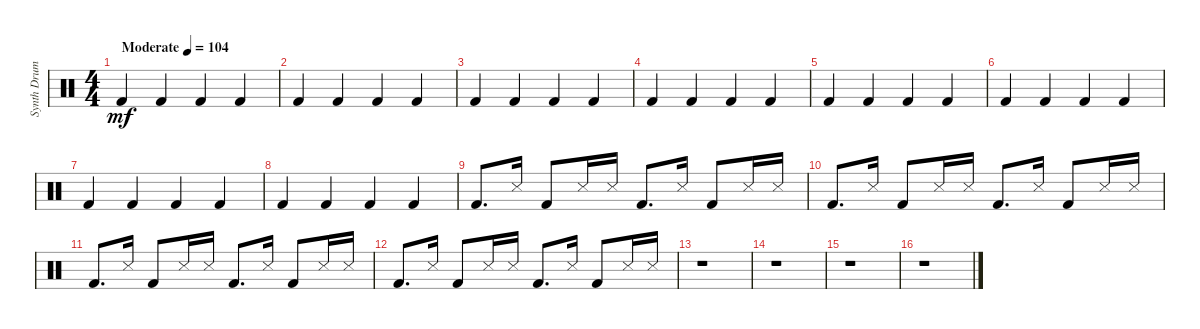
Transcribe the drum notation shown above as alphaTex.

\track ("Synth Drums" "Synth Drum") {instrument percussion}
\staff {score}
\articulation defaults
\ts (4 4)
\tempo (104 "Moderate")
\clef neutral
\ks c "Kick (hit) 2".4{dy mf} "Kick (hit) 2".4 "Kick (hit) 2".4 "Kick (hit) 2".4
|
"Kick (hit) 2".4 "Kick (hit) 2".4 "Kick (hit) 2".4 "Kick (hit) 2".4 |
"Kick (hit) 2".4 "Kick (hit) 2".4 "Kick (hit) 2".4 "Kick (hit) 2".4 |
"Kick (hit) 2".4 "Kick (hit) 2".4 "Kick (hit) 2".4 "Kick (hit) 2".4 |
"Kick (hit) 2".4 "Kick (hit) 2".4 "Kick (hit) 2".4 "Kick (hit) 2".4 |
"Kick (hit) 2".4 "Kick (hit) 2".4 "Kick (hit) 2".4 "Kick (hit) 2".4 |
"Kick (hit) 2".4 "Kick (hit) 2".4 "Kick (hit) 2".4 "Kick (hit) 2".4 |
"Kick (hit) 2".4 "Kick (hit) 2".4 "Kick (hit) 2".4 "Kick (hit) 2".4 |
"Kick (hit) 2".8{d} "Snare (side stick) 3".16 "Kick (hit) 2".8 "Snare (side stick) 3".16 "Snare (side stick) 3".16 "Kick (hit) 2".8{d} "Snare (side stick) 3".16 "Kick (hit) 2".8 "Snare (side stick) 3".16 "Snare (side stick) 3".16 |
"Kick (hit) 2".8{d} "Snare (side stick) 3".16 "Kick (hit) 2".8 "Snare (side stick) 3".16 "Snare (side stick) 3".16 "Kick (hit) 2".8{d} "Snare (side stick) 3".16 "Kick (hit) 2".8 "Snare (side stick) 3".16 "Snare (side stick) 3".16 |
"Kick (hit) 2".8{d} "Snare (side stick) 3".16 "Kick (hit) 2".8 "Snare (side stick) 3".16 "Snare (side stick) 3".16 "Kick (hit) 2".8{d} "Snare (side stick) 3".16 "Kick (hit) 2".8 "Snare (side stick) 3".16 "Snare (side stick) 3".16 |
"Kick (hit) 2".8{d} "Snare (side stick) 3".16 "Kick (hit) 2".8 "Snare (side stick) 3".16 "Snare (side stick) 3".16 "Kick (hit) 2".8{d} "Snare (side stick) 3".16 "Kick (hit) 2".8 "Snare (side stick) 3".16 "Snare (side stick) 3".16 |
r.1 |
r.1 |
r.1 |
r.1
